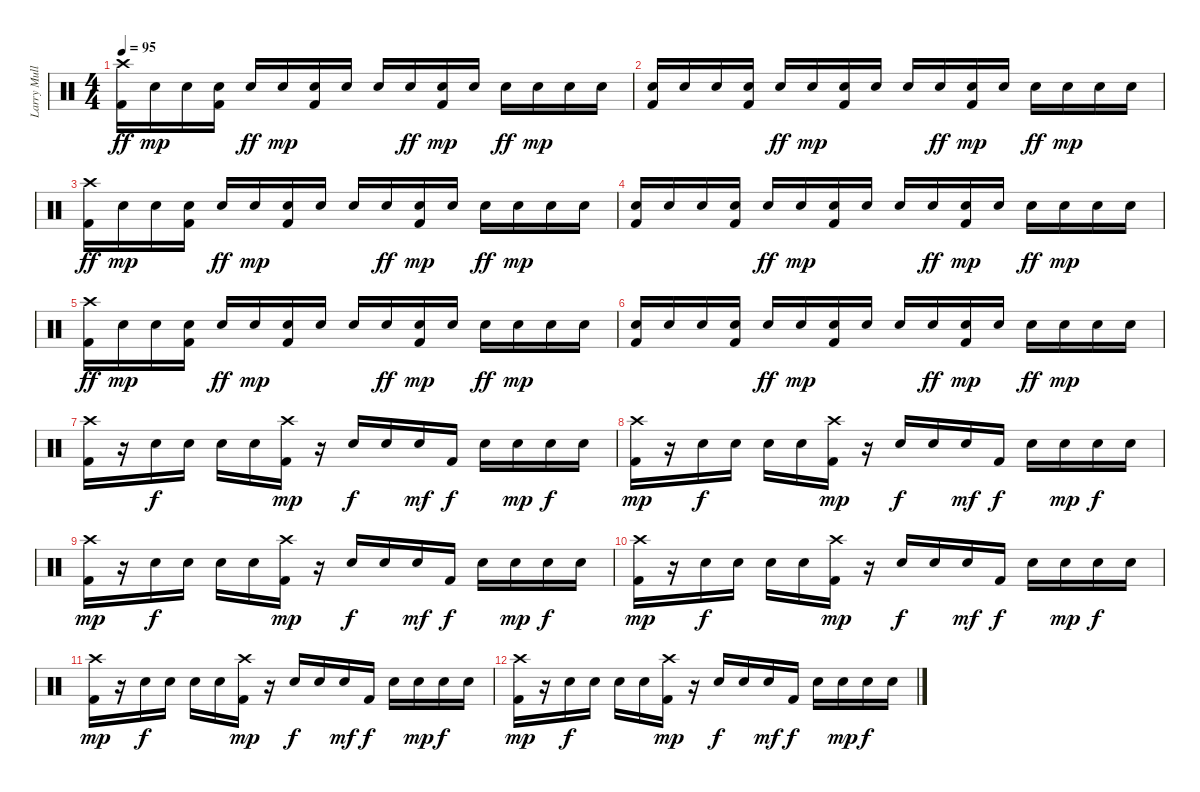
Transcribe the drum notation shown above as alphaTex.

\track ("Larry Mullen Jr" "Larry Mull") {instrument percussion}
\staff {score}
\articulation defaults
\ts (4 4)
\tempo 95
\clef neutral
\ks c
("Crash high (hit)" "Kick (hit) 2").16{dy ff} "Snare (hit) 2".16{dy mp} "Snare (hit) 2".16 ("Snare (hit) 2" "Kick (hit) 2").16 "Snare (hit) 2".16{dy ff} "Snare (hit) 2".16{dy mp} ("Snare (hit) 2" "Kick (hit) 2").16 "Snare (hit) 2".16 "Snare (hit) 2".16 "Snare (hit) 2".16{dy ff} ("Snare (hit) 2" "Kick (hit) 2").16{dy mp} "Snare (hit) 2".16 "Snare (hit) 2".16{dy ff} "Snare (hit) 2".16{dy mp} "Snare (hit) 2".16 "Snare (hit) 2".16 |
("Snare (hit) 2" "Kick (hit) 2").16 "Snare (hit) 2".16 "Snare (hit) 2".16 ("Snare (hit) 2" "Kick (hit) 2").16 "Snare (hit) 2".16{dy ff} "Snare (hit) 2".16{dy mp} ("Snare (hit) 2" "Kick (hit) 2").16 "Snare (hit) 2".16 "Snare (hit) 2".16 "Snare (hit) 2".16{dy ff} ("Snare (hit) 2" "Kick (hit) 2").16{dy mp} "Snare (hit) 2".16 "Snare (hit) 2".16{dy ff} "Snare (hit) 2".16{dy mp} "Snare (hit) 2".16 "Snare (hit) 2".16 |
("Crash high (hit)" "Kick (hit) 2").16{dy ff} "Snare (hit) 2".16{dy mp} "Snare (hit) 2".16 ("Snare (hit) 2" "Kick (hit) 2").16 "Snare (hit) 2".16{dy ff} "Snare (hit) 2".16{dy mp} ("Snare (hit) 2" "Kick (hit) 2").16 "Snare (hit) 2".16 "Snare (hit) 2".16 "Snare (hit) 2".16{dy ff} ("Snare (hit) 2" "Kick (hit) 2").16{dy mp} "Snare (hit) 2".16 "Snare (hit) 2".16{dy ff} "Snare (hit) 2".16{dy mp} "Snare (hit) 2".16 "Snare (hit) 2".16 |
("Snare (hit) 2" "Kick (hit) 2").16 "Snare (hit) 2".16 "Snare (hit) 2".16 ("Snare (hit) 2" "Kick (hit) 2").16 "Snare (hit) 2".16{dy ff} "Snare (hit) 2".16{dy mp} ("Snare (hit) 2" "Kick (hit) 2").16 "Snare (hit) 2".16 "Snare (hit) 2".16 "Snare (hit) 2".16{dy ff} ("Snare (hit) 2" "Kick (hit) 2").16{dy mp} "Snare (hit) 2".16 "Snare (hit) 2".16{dy ff} "Snare (hit) 2".16{dy mp} "Snare (hit) 2".16 "Snare (hit) 2".16 |
("Crash high (hit)" "Kick (hit) 2").16{dy ff} "Snare (hit) 2".16{dy mp} "Snare (hit) 2".16 ("Snare (hit) 2" "Kick (hit) 2").16 "Snare (hit) 2".16{dy ff} "Snare (hit) 2".16{dy mp} ("Snare (hit) 2" "Kick (hit) 2").16 "Snare (hit) 2".16 "Snare (hit) 2".16 "Snare (hit) 2".16{dy ff} ("Snare (hit) 2" "Kick (hit) 2").16{dy mp} "Snare (hit) 2".16 "Snare (hit) 2".16{dy ff} "Snare (hit) 2".16{dy mp} "Snare (hit) 2".16 "Snare (hit) 2".16 |
("Snare (hit) 2" "Kick (hit) 2").16 "Snare (hit) 2".16 "Snare (hit) 2".16 ("Snare (hit) 2" "Kick (hit) 2").16 "Snare (hit) 2".16{dy ff} "Snare (hit) 2".16{dy mp} ("Snare (hit) 2" "Kick (hit) 2").16 "Snare (hit) 2".16 "Snare (hit) 2".16 "Snare (hit) 2".16{dy ff} ("Snare (hit) 2" "Kick (hit) 2").16{dy mp} "Snare (hit) 2".16 "Snare (hit) 2".16{dy ff} "Snare (hit) 2".16{dy mp} "Snare (hit) 2".16 "Snare (hit) 2".16 |
("Crash high (hit)" "Kick (hit) 2").16 r.16 "Snare (hit) 2".16{dy f} "Snare (hit) 2".16 "Snare (hit) 2".16 "Snare (hit) 2".16 ("Crash high (hit)" "Kick (hit) 2").16{dy mp} r.16 "Snare (hit) 2".16{dy f} "Snare (hit) 2".16 "Snare (hit) 2".16{dy mf} "Kick (hit) 2".16{dy f} "Snare (hit) 2".16 "Snare (hit) 2".16{dy mp} "Snare (hit) 2".16{dy f} "Snare (hit) 2".16 |
("Crash high (hit)" "Kick (hit) 2").16{dy mp} r.16 "Snare (hit) 2".16{dy f} "Snare (hit) 2".16 "Snare (hit) 2".16 "Snare (hit) 2".16 ("Crash high (hit)" "Kick (hit) 2").16{dy mp} r.16 "Snare (hit) 2".16{dy f} "Snare (hit) 2".16 "Snare (hit) 2".16{dy mf} "Kick (hit) 2".16{dy f} "Snare (hit) 2".16 "Snare (hit) 2".16{dy mp} "Snare (hit) 2".16{dy f} "Snare (hit) 2".16 |
("Crash high (hit)" "Kick (hit) 2").16{dy mp} r.16 "Snare (hit) 2".16{dy f} "Snare (hit) 2".16 "Snare (hit) 2".16 "Snare (hit) 2".16 ("Crash high (hit)" "Kick (hit) 2").16{dy mp} r.16 "Snare (hit) 2".16{dy f} "Snare (hit) 2".16 "Snare (hit) 2".16{dy mf} "Kick (hit) 2".16{dy f} "Snare (hit) 2".16 "Snare (hit) 2".16{dy mp} "Snare (hit) 2".16{dy f} "Snare (hit) 2".16 |
("Crash high (hit)" "Kick (hit) 2").16{dy mp} r.16 "Snare (hit) 2".16{dy f} "Snare (hit) 2".16 "Snare (hit) 2".16 "Snare (hit) 2".16 ("Crash high (hit)" "Kick (hit) 2").16{dy mp} r.16 "Snare (hit) 2".16{dy f} "Snare (hit) 2".16 "Snare (hit) 2".16{dy mf} "Kick (hit) 2".16{dy f} "Snare (hit) 2".16 "Snare (hit) 2".16{dy mp} "Snare (hit) 2".16{dy f} "Snare (hit) 2".16 |
("Crash high (hit)" "Kick (hit) 2").16{dy mp} r.16 "Snare (hit) 2".16{dy f} "Snare (hit) 2".16 "Snare (hit) 2".16 "Snare (hit) 2".16 ("Crash high (hit)" "Kick (hit) 2").16{dy mp} r.16 "Snare (hit) 2".16{dy f} "Snare (hit) 2".16 "Snare (hit) 2".16{dy mf} "Kick (hit) 2".16{dy f} "Snare (hit) 2".16 "Snare (hit) 2".16{dy mp} "Snare (hit) 2".16{dy f} "Snare (hit) 2".16 |
("Crash high (hit)" "Kick (hit) 2").16{dy mp} r.16 "Snare (hit) 2".16{dy f} "Snare (hit) 2".16 "Snare (hit) 2".16 "Snare (hit) 2".16 ("Crash high (hit)" "Kick (hit) 2").16{dy mp} r.16 "Snare (hit) 2".16{dy f} "Snare (hit) 2".16 "Snare (hit) 2".16{dy mf} "Kick (hit) 2".16{dy f} "Snare (hit) 2".16 "Snare (hit) 2".16{dy mp} "Snare (hit) 2".16{dy f} "Snare (hit) 2".16
